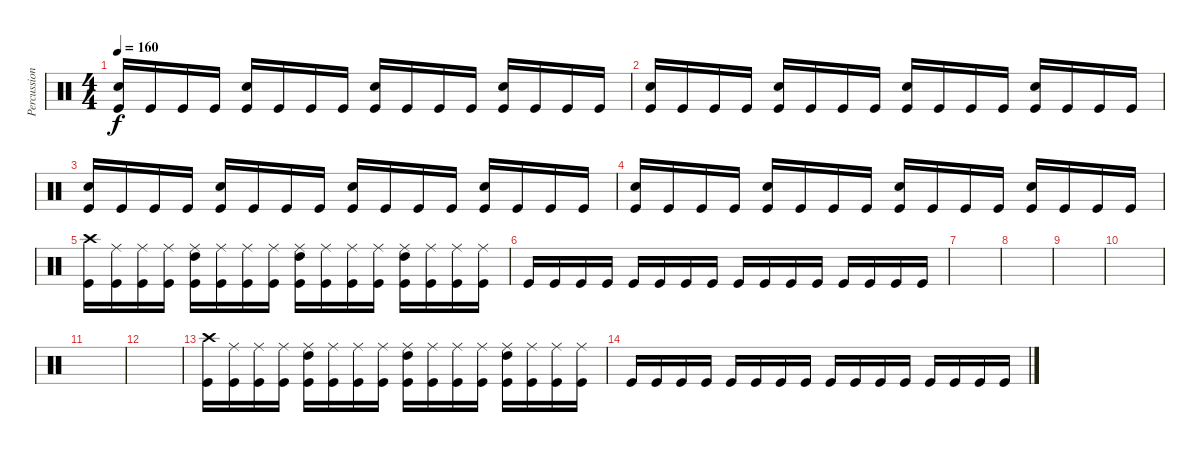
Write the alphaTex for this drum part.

\track ("Percussioni" "Percussion") {instrument percussion}
\staff {score}
\articulation defaults
\ts (4 4)
\tempo 160
\clef neutral
\ks c
("Snare (hit) 2" "Kick (hit)").16{dy f} "Kick (hit)".16 "Kick (hit)".16 "Kick (hit)".16 ("Snare (hit) 2" "Kick (hit)").16 "Kick (hit)".16 "Kick (hit)".16 "Kick (hit)".16 ("Snare (hit) 2" "Kick (hit)").16 "Kick (hit)".16 "Kick (hit)".16 "Kick (hit)".16 ("Snare (hit) 2" "Kick (hit)").16 "Kick (hit)".16 "Kick (hit)".16 "Kick (hit)".16 |
("Snare (hit) 2" "Kick (hit)").16 "Kick (hit)".16 "Kick (hit)".16 "Kick (hit)".16 ("Snare (hit) 2" "Kick (hit)").16 "Kick (hit)".16 "Kick (hit)".16 "Kick (hit)".16 ("Snare (hit) 2" "Kick (hit)").16 "Kick (hit)".16 "Kick (hit)".16 "Kick (hit)".16 ("Snare (hit) 2" "Kick (hit)").16 "Kick (hit)".16 "Kick (hit)".16 "Kick (hit)".16 |
("Snare (hit) 2" "Kick (hit)").16 "Kick (hit)".16 "Kick (hit)".16 "Kick (hit)".16 ("Snare (hit) 2" "Kick (hit)").16 "Kick (hit)".16 "Kick (hit)".16 "Kick (hit)".16 ("Snare (hit) 2" "Kick (hit)").16 "Kick (hit)".16 "Kick (hit)".16 "Kick (hit)".16 ("Snare (hit) 2" "Kick (hit)").16 "Kick (hit)".16 "Kick (hit)".16 "Kick (hit)".16 |
("Snare (hit) 2" "Kick (hit)").16 "Kick (hit)".16 "Kick (hit)".16 "Kick (hit)".16 ("Snare (hit) 2" "Kick (hit)").16 "Kick (hit)".16 "Kick (hit)".16 "Kick (hit)".16 ("Snare (hit) 2" "Kick (hit)").16 "Kick (hit)".16 "Kick (hit)".16 "Kick (hit)".16 ("Snare (hit) 2" "Kick (hit)").16 "Kick (hit)".16 "Kick (hit)".16 "Kick (hit)".16 |
("Crash high (hit)" "Kick (hit)").16 ("Ride (middle)" "Kick (hit)").16 ("Ride (middle)" "Kick (hit)").16 ("Ride (middle)" "Kick (hit)").16 ("Ride (middle)" "High Tom (hit)" "Kick (hit)").16 ("Ride (middle)" "Kick (hit)").16 ("Ride (middle)" "Kick (hit)").16 ("Ride (middle)" "Kick (hit)").16 ("Ride (middle)" "High Tom (hit)" "Kick (hit)").16 ("Ride (middle)" "Kick (hit)").16 ("Ride (middle)" "Kick (hit)").16 ("Ride (middle)" "Kick (hit)").16 ("Ride (middle)" "High Tom (hit)" "Kick (hit)").16 ("Ride (middle)" "Kick (hit)").16 ("Ride (middle)" "Kick (hit)").16 ("Ride (middle)" "Kick (hit)").16 |
"Kick (hit)".16 "Kick (hit)".16 "Kick (hit)".16 "Kick (hit)".16 "Kick (hit)".16 "Kick (hit)".16 "Kick (hit)".16 "Kick (hit)".16 "Kick (hit)".16 "Kick (hit)".16 "Kick (hit)".16 "Kick (hit)".16 "Kick (hit)".16 "Kick (hit)".16 "Kick (hit)".16 "Kick (hit)".16 |
|
|
|
|
|
|
("Crash high (hit)" "Kick (hit)").16 ("Ride (middle)" "Kick (hit)").16 ("Ride (middle)" "Kick (hit)").16 ("Ride (middle)" "Kick (hit)").16 ("Ride (middle)" "High Tom (hit)" "Kick (hit)").16 ("Ride (middle)" "Kick (hit)").16 ("Ride (middle)" "Kick (hit)").16 ("Ride (middle)" "Kick (hit)").16 ("Ride (middle)" "High Tom (hit)" "Kick (hit)").16 ("Ride (middle)" "Kick (hit)").16 ("Ride (middle)" "Kick (hit)").16 ("Ride (middle)" "Kick (hit)").16 ("Ride (middle)" "High Tom (hit)" "Kick (hit)").16 ("Ride (middle)" "Kick (hit)").16 ("Ride (middle)" "Kick (hit)").16 ("Ride (middle)" "Kick (hit)").16 |
"Kick (hit)".16 "Kick (hit)".16 "Kick (hit)".16 "Kick (hit)".16 "Kick (hit)".16 "Kick (hit)".16 "Kick (hit)".16 "Kick (hit)".16 "Kick (hit)".16 "Kick (hit)".16 "Kick (hit)".16 "Kick (hit)".16 "Kick (hit)".16 "Kick (hit)".16 "Kick (hit)".16 "Kick (hit)".16
